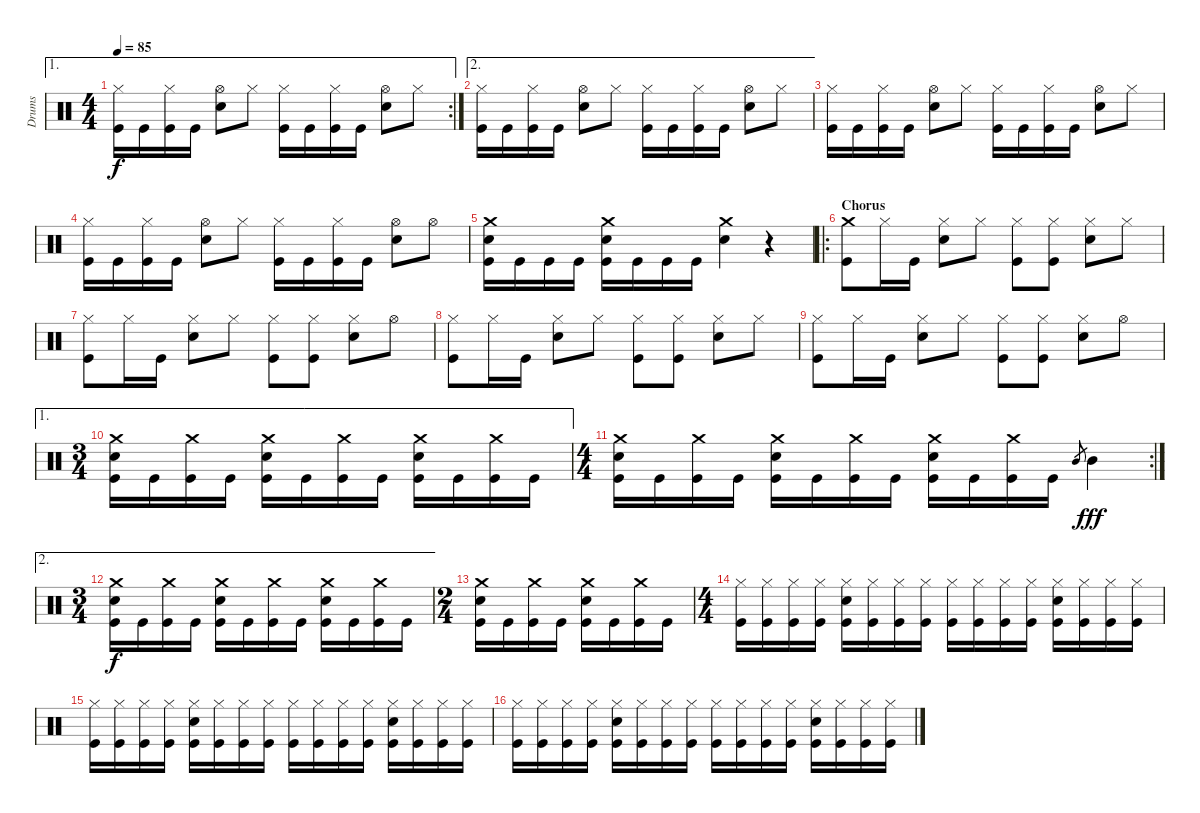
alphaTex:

\track ("Drums" "Drums") {instrument percussion}
\staff {score}
\articulation defaults
\ae 1
\rc 2
\ts (4 4)
\tempo 85
\clef neutral
\ks c
("Hi-Hat (closed)" "Kick (hit)").16{dy f} "Kick (hit)".16 ("Hi-Hat (closed)" "Kick (hit)").16 "Kick (hit)".16 ("Hi-Hat (open)" "Snare (hit) 2").8 "Hi-Hat (closed)".8 ("Hi-Hat (closed)" "Kick (hit)").16 "Kick (hit)".16 ("Hi-Hat (closed)" "Kick (hit)").16 "Kick (hit)".16 ("Hi-Hat (open)" "Snare (hit) 2").8 "Hi-Hat (closed)".8 |
\ae 2
("Hi-Hat (closed)" "Kick (hit)").16 "Kick (hit)".16 ("Hi-Hat (closed)" "Kick (hit)").16 "Kick (hit)".16 ("Hi-Hat (open)" "Snare (hit) 2").8 "Hi-Hat (closed)".8 ("Hi-Hat (closed)" "Kick (hit)").16 "Kick (hit)".16 ("Hi-Hat (closed)" "Kick (hit)").16 "Kick (hit)".16 ("Hi-Hat (open)" "Snare (hit) 2").8 "Hi-Hat (closed)".8 |
("Hi-Hat (closed)" "Kick (hit)").16 "Kick (hit)".16 ("Hi-Hat (closed)" "Kick (hit)").16 "Kick (hit)".16 ("Hi-Hat (open)" "Snare (hit) 2").8 "Hi-Hat (closed)".8 ("Hi-Hat (closed)" "Kick (hit)").16 "Kick (hit)".16 ("Hi-Hat (closed)" "Kick (hit)").16 "Kick (hit)".16 ("Hi-Hat (open)" "Snare (hit) 2").8 "Hi-Hat (closed)".8 |
("Hi-Hat (closed)" "Kick (hit)").16 "Kick (hit)".16 ("Hi-Hat (closed)" "Kick (hit)").16 "Kick (hit)".16 ("Hi-Hat (open)" "Snare (hit) 2").8 "Hi-Hat (closed)".8 ("Hi-Hat (closed)" "Kick (hit)").16 "Kick (hit)".16 ("Hi-Hat (closed)" "Kick (hit)").16 "Kick (hit)".16 ("Hi-Hat (open)" "Snare (hit) 2").8 "Hi-Hat (open)".8 |
("Crash medium (hit)" "Snare (hit) 2" "Kick (hit)").16 "Kick (hit)".16 "Kick (hit)".16 "Kick (hit)".16 ("Crash medium (hit)" "Snare (hit) 2" "Kick (hit)").16 "Kick (hit)".16 "Kick (hit)".16 "Kick (hit)".16 ("Crash medium (hit)" "Snare (hit) 2").4 r.4 |
\ro
\section ("" "Chorus ")
("Crash medium (hit)" "Kick (hit)").8 "Hi-Hat (closed)".16 "Kick (hit)".16 ("Hi-Hat (closed)" "Snare (hit) 2").8 "Hi-Hat (closed)".8 ("Hi-Hat (closed)" "Kick (hit)").8 ("Hi-Hat (closed)" "Kick (hit)").8 ("Hi-Hat (closed)" "Snare (hit) 2").8 "Hi-Hat (closed)".8 |
("Hi-Hat (closed)" "Kick (hit)").8 "Hi-Hat (closed)".16 "Kick (hit)".16 ("Hi-Hat (closed)" "Snare (hit) 2").8 "Hi-Hat (closed)".8 ("Hi-Hat (closed)" "Kick (hit)").8 ("Hi-Hat (closed)" "Kick (hit)").8 ("Hi-Hat (closed)" "Snare (hit) 2").8 "Hi-Hat (open)".8 |
("Hi-Hat (closed)" "Kick (hit)").8 "Hi-Hat (closed)".16 "Kick (hit)".16 ("Hi-Hat (closed)" "Snare (hit) 2").8 "Hi-Hat (closed)".8 ("Hi-Hat (closed)" "Kick (hit)").8 ("Hi-Hat (closed)" "Kick (hit)").8 ("Hi-Hat (closed)" "Snare (hit) 2").8 "Hi-Hat (closed)".8 |
("Hi-Hat (closed)" "Kick (hit)").8 "Hi-Hat (closed)".16 "Kick (hit)".16 ("Hi-Hat (closed)" "Snare (hit) 2").8 "Hi-Hat (closed)".8 ("Hi-Hat (closed)" "Kick (hit)").8 ("Hi-Hat (closed)" "Kick (hit)").8 ("Hi-Hat (closed)" "Snare (hit) 2").8 "Hi-Hat (open)".8 |
\ae 1
\ts (3 4)
("Crash medium (hit)" "Snare (hit) 2" "Kick (hit)").16 "Kick (hit)".16 ("Crash medium (hit)" "Kick (hit)").16 "Kick (hit)".16 ("Crash medium (hit)" "Snare (hit) 2" "Kick (hit)").16 "Kick (hit)".16 ("Crash medium (hit)" "Kick (hit)").16 "Kick (hit)".16 ("Crash medium (hit)" "Snare (hit) 2" "Kick (hit)").16 "Kick (hit)".16 ("Crash medium (hit)" "Kick (hit)").16 "Kick (hit)".16 |
\rc 2
\ts (4 4)
("Crash medium (hit)" "Snare (hit) 2" "Kick (hit)").16 "Kick (hit)".16 ("Crash medium (hit)" "Kick (hit)").16 "Kick (hit)".16 ("Crash medium (hit)" "Snare (hit) 2" "Kick (hit)").16 "Kick (hit)".16 ("Crash medium (hit)" "Kick (hit)").16 "Kick (hit)".16 ("Crash medium (hit)" "Snare (hit) 2" "Kick (hit)").16 "Kick (hit)".16 ("Crash medium (hit)" "Kick (hit)").16 "Kick (hit)".16 "Mid Tom (hit)".8{gr} "Mid Tom (hit)".4{dy fff} |
\ae 2
\ts (3 4)
("Crash medium (hit)" "Snare (hit) 2" "Kick (hit)").16{dy f} "Kick (hit)".16 ("Crash medium (hit)" "Kick (hit)").16 "Kick (hit)".16 ("Crash medium (hit)" "Snare (hit) 2" "Kick (hit)").16 "Kick (hit)".16 ("Crash medium (hit)" "Kick (hit)").16 "Kick (hit)".16 ("Crash medium (hit)" "Snare (hit) 2" "Kick (hit)").16 "Kick (hit)".16 ("Crash medium (hit)" "Kick (hit)").16 "Kick (hit)".16 |
\ts (2 4)
("Crash medium (hit)" "Snare (hit) 2" "Kick (hit)").16 "Kick (hit)".16 ("Crash medium (hit)" "Kick (hit)").16 "Kick (hit)".16 ("Crash medium (hit)" "Snare (hit) 2" "Kick (hit)").16 "Kick (hit)".16 ("Crash medium (hit)" "Kick (hit)").16 "Kick (hit)".16 |
\ts (4 4)
("Hi-Hat (closed)" "Kick (hit)").16 ("Hi-Hat (closed)" "Kick (hit)").16 ("Hi-Hat (closed)" "Kick (hit)").16 ("Hi-Hat (closed)" "Kick (hit)").16 ("Hi-Hat (closed)" "Snare (hit) 2" "Kick (hit)").16 ("Hi-Hat (closed)" "Kick (hit)").16 ("Hi-Hat (closed)" "Kick (hit)").16 ("Hi-Hat (closed)" "Kick (hit)").16 ("Hi-Hat (closed)" "Kick (hit)").16 ("Hi-Hat (closed)" "Kick (hit)").16 ("Hi-Hat (closed)" "Kick (hit)").16 ("Hi-Hat (closed)" "Kick (hit)").16 ("Hi-Hat (closed)" "Snare (hit) 2" "Kick (hit)").16 ("Hi-Hat (closed)" "Kick (hit)").16 ("Hi-Hat (closed)" "Kick (hit)").16 ("Hi-Hat (closed)" "Kick (hit)").16 |
("Hi-Hat (closed)" "Kick (hit)").16 ("Hi-Hat (closed)" "Kick (hit)").16 ("Hi-Hat (closed)" "Kick (hit)").16 ("Hi-Hat (closed)" "Kick (hit)").16 ("Hi-Hat (closed)" "Snare (hit) 2" "Kick (hit)").16 ("Hi-Hat (closed)" "Kick (hit)").16 ("Hi-Hat (closed)" "Kick (hit)").16 ("Hi-Hat (closed)" "Kick (hit)").16 ("Hi-Hat (closed)" "Kick (hit)").16 ("Hi-Hat (closed)" "Kick (hit)").16 ("Hi-Hat (closed)" "Kick (hit)").16 ("Hi-Hat (closed)" "Kick (hit)").16 ("Hi-Hat (closed)" "Snare (hit) 2" "Kick (hit)").16 ("Hi-Hat (closed)" "Kick (hit)").16 ("Hi-Hat (closed)" "Kick (hit)").16 ("Hi-Hat (closed)" "Kick (hit)").16 |
("Hi-Hat (closed)" "Kick (hit)").16 ("Hi-Hat (closed)" "Kick (hit)").16 ("Hi-Hat (closed)" "Kick (hit)").16 ("Hi-Hat (closed)" "Kick (hit)").16 ("Hi-Hat (closed)" "Snare (hit) 2" "Kick (hit)").16 ("Hi-Hat (closed)" "Kick (hit)").16 ("Hi-Hat (closed)" "Kick (hit)").16 ("Hi-Hat (closed)" "Kick (hit)").16 ("Hi-Hat (closed)" "Kick (hit)").16 ("Hi-Hat (closed)" "Kick (hit)").16 ("Hi-Hat (closed)" "Kick (hit)").16 ("Hi-Hat (closed)" "Kick (hit)").16 ("Hi-Hat (closed)" "Snare (hit) 2" "Kick (hit)").16 ("Hi-Hat (closed)" "Kick (hit)").16 ("Hi-Hat (closed)" "Kick (hit)").16 ("Hi-Hat (closed)" "Kick (hit)").16
